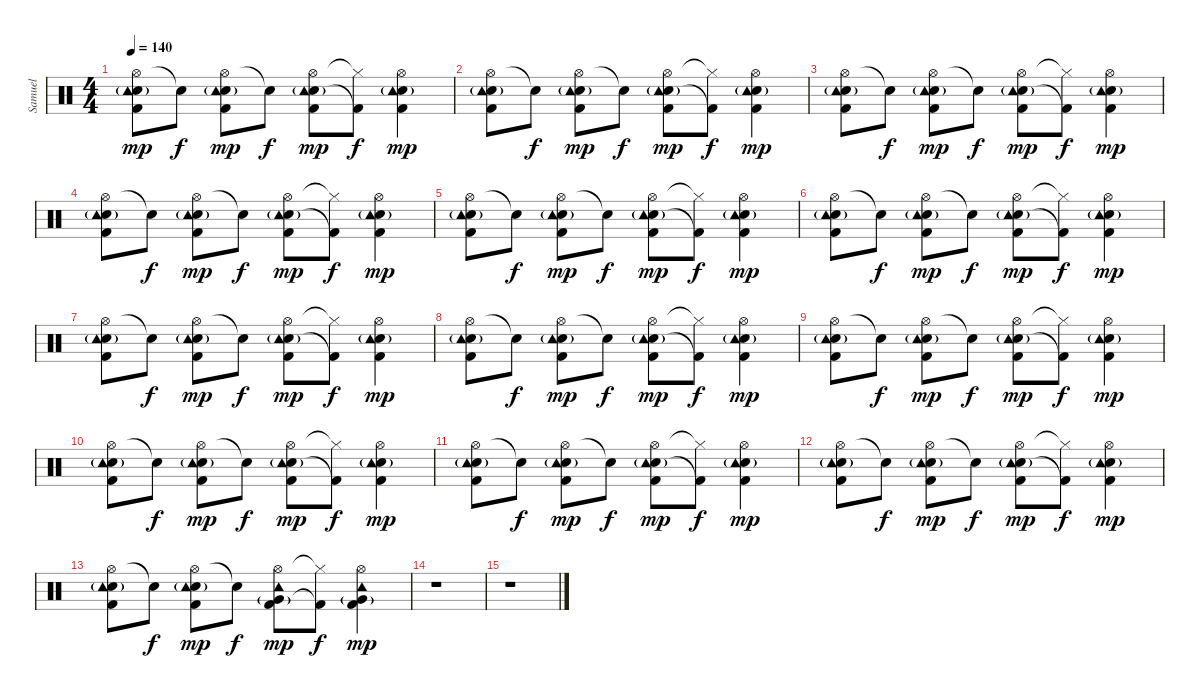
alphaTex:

\track ("Samuel" "Samuel") {instrument percussion}
\staff {score}
\articulation defaults
\ts (4 4)
\tempo 140
\clef neutral
\ks c
("Hi-Hat (open)" "Snare (hit) 2"{g} "Kick (hit) 2" "Tambourine (hit)").8{dy mp} "Snare (hit)"{t}.8{dy f} ("Hi-Hat (open)" "Snare (hit) 2"{g} "Kick (hit) 2" "Tambourine (hit)").8{dy mp} "Snare (hit)"{t}.8{dy f} ("Hi-Hat (open)" "Snare (hit) 2"{g} "Kick (hit) 2" "Tambourine (hit)").8{dy mp} ("Hi-Hat (closed)"{t} "Kick (hit) 2"{t}).8{dy f} ("Hi-Hat (open)" "Snare (hit) 2"{g} "Kick (hit) 2" "Tambourine (hit)").4{dy mp} |
("Hi-Hat (open)" "Snare (hit) 2"{g} "Kick (hit) 2" "Tambourine (hit)").8 "Snare (hit)"{t}.8{dy f} ("Hi-Hat (open)" "Snare (hit) 2"{g} "Kick (hit) 2" "Tambourine (hit)").8{dy mp} "Snare (hit)"{t}.8{dy f} ("Hi-Hat (open)" "Snare (hit) 2"{g} "Kick (hit) 2" "Tambourine (hit)").8{dy mp} ("Hi-Hat (closed)"{t} "Kick (hit) 2"{t}).8{dy f} ("Hi-Hat (open)" "Snare (hit) 2"{g} "Kick (hit) 2" "Tambourine (hit)").4{dy mp} |
("Hi-Hat (open)" "Snare (hit) 2"{g} "Kick (hit) 2" "Tambourine (hit)").8 "Snare (hit)"{t}.8{dy f} ("Hi-Hat (open)" "Snare (hit) 2"{g} "Kick (hit) 2" "Tambourine (hit)").8{dy mp} "Snare (hit)"{t}.8{dy f} ("Hi-Hat (open)" "Snare (hit) 2"{g} "Kick (hit) 2" "Tambourine (hit)").8{dy mp} ("Hi-Hat (closed)"{t} "Kick (hit) 2"{t}).8{dy f} ("Hi-Hat (open)" "Snare (hit) 2"{g} "Kick (hit) 2" "Tambourine (hit)").4{dy mp} |
("Hi-Hat (open)" "Snare (hit) 2"{g} "Kick (hit) 2" "Tambourine (hit)").8 "Snare (hit)"{t}.8{dy f} ("Hi-Hat (open)" "Snare (hit) 2"{g} "Kick (hit) 2" "Tambourine (hit)").8{dy mp} "Snare (hit)"{t}.8{dy f} ("Hi-Hat (open)" "Snare (hit) 2"{g} "Kick (hit) 2" "Tambourine (hit)").8{dy mp} ("Hi-Hat (closed)"{t} "Kick (hit) 2"{t}).8{dy f} ("Hi-Hat (open)" "Snare (hit) 2"{g} "Kick (hit) 2" "Tambourine (hit)").4{dy mp} |
("Hi-Hat (open)" "Snare (hit) 2"{g} "Kick (hit) 2" "Tambourine (hit)").8 "Snare (hit)"{t}.8{dy f} ("Hi-Hat (open)" "Snare (hit) 2"{g} "Kick (hit) 2" "Tambourine (hit)").8{dy mp} "Snare (hit)"{t}.8{dy f} ("Hi-Hat (open)" "Snare (hit) 2"{g} "Kick (hit) 2" "Tambourine (hit)").8{dy mp} ("Hi-Hat (closed)"{t} "Kick (hit) 2"{t}).8{dy f} ("Hi-Hat (open)" "Snare (hit) 2"{g} "Kick (hit) 2" "Tambourine (hit)").4{dy mp} |
("Hi-Hat (open)" "Snare (hit) 2"{g} "Kick (hit) 2" "Tambourine (hit)").8 "Snare (hit)"{t}.8{dy f} ("Hi-Hat (open)" "Snare (hit) 2"{g} "Kick (hit) 2" "Tambourine (hit)").8{dy mp} "Snare (hit)"{t}.8{dy f} ("Hi-Hat (open)" "Snare (hit) 2"{g} "Kick (hit) 2" "Tambourine (hit)").8{dy mp} ("Hi-Hat (closed)"{t} "Kick (hit) 2"{t}).8{dy f} ("Hi-Hat (open)" "Snare (hit) 2"{g} "Kick (hit) 2" "Tambourine (hit)").4{dy mp} |
("Hi-Hat (open)" "Snare (hit) 2"{g} "Kick (hit) 2" "Tambourine (hit)").8 "Snare (hit)"{t}.8{dy f} ("Hi-Hat (open)" "Snare (hit) 2"{g} "Kick (hit) 2" "Tambourine (hit)").8{dy mp} "Snare (hit)"{t}.8{dy f} ("Hi-Hat (open)" "Snare (hit) 2"{g} "Kick (hit) 2" "Tambourine (hit)").8{dy mp} ("Hi-Hat (closed)"{t} "Kick (hit) 2"{t}).8{dy f} ("Hi-Hat (open)" "Snare (hit) 2"{g} "Kick (hit) 2" "Tambourine (hit)").4{dy mp} |
("Hi-Hat (open)" "Snare (hit) 2"{g} "Kick (hit) 2" "Tambourine (hit)").8 "Snare (hit)"{t}.8{dy f} ("Hi-Hat (open)" "Snare (hit) 2"{g} "Kick (hit) 2" "Tambourine (hit)").8{dy mp} "Snare (hit)"{t}.8{dy f} ("Hi-Hat (open)" "Snare (hit) 2"{g} "Kick (hit) 2" "Tambourine (hit)").8{dy mp} ("Hi-Hat (closed)"{t} "Kick (hit) 2"{t}).8{dy f} ("Hi-Hat (open)" "Snare (hit) 2"{g} "Kick (hit) 2" "Tambourine (hit)").4{dy mp} |
("Hi-Hat (open)" "Snare (hit) 2"{g} "Kick (hit) 2" "Tambourine (hit)").8 "Snare (hit)"{t}.8{dy f} ("Hi-Hat (open)" "Snare (hit) 2"{g} "Kick (hit) 2" "Tambourine (hit)").8{dy mp} "Snare (hit)"{t}.8{dy f} ("Hi-Hat (open)" "Snare (hit) 2"{g} "Kick (hit) 2" "Tambourine (hit)").8{dy mp} ("Hi-Hat (closed)"{t} "Kick (hit) 2"{t}).8{dy f} ("Hi-Hat (open)" "Snare (hit) 2"{g} "Kick (hit) 2" "Tambourine (hit)").4{dy mp} |
("Hi-Hat (open)" "Snare (hit) 2"{g} "Kick (hit) 2" "Tambourine (hit)").8 "Snare (hit)"{t}.8{dy f} ("Hi-Hat (open)" "Snare (hit) 2"{g} "Kick (hit) 2" "Tambourine (hit)").8{dy mp} "Snare (hit)"{t}.8{dy f} ("Hi-Hat (open)" "Snare (hit) 2"{g} "Kick (hit) 2" "Tambourine (hit)").8{dy mp} ("Hi-Hat (closed)"{t} "Kick (hit) 2"{t}).8{dy f} ("Hi-Hat (open)" "Snare (hit) 2"{g} "Kick (hit) 2" "Tambourine (hit)").4{dy mp} |
("Hi-Hat (open)" "Snare (hit) 2"{g} "Kick (hit) 2" "Tambourine (hit)").8 "Snare (hit)"{t}.8{dy f} ("Hi-Hat (open)" "Snare (hit) 2"{g} "Kick (hit) 2" "Tambourine (hit)").8{dy mp} "Snare (hit)"{t}.8{dy f} ("Hi-Hat (open)" "Snare (hit) 2"{g} "Kick (hit) 2" "Tambourine (hit)").8{dy mp} ("Hi-Hat (closed)"{t} "Kick (hit) 2"{t}).8{dy f} ("Hi-Hat (open)" "Snare (hit) 2"{g} "Kick (hit) 2" "Tambourine (hit)").4{dy mp} |
("Hi-Hat (open)" "Snare (hit) 2"{g} "Kick (hit) 2" "Tambourine (hit)").8 "Snare (hit)"{t}.8{dy f} ("Hi-Hat (open)" "Snare (hit) 2"{g} "Kick (hit) 2" "Tambourine (hit)").8{dy mp} "Snare (hit)"{t}.8{dy f} ("Hi-Hat (open)" "Snare (hit) 2"{g} "Kick (hit) 2" "Tambourine (hit)").8{dy mp} ("Hi-Hat (closed)"{t} "Kick (hit) 2"{t}).8{dy f} ("Hi-Hat (open)" "Snare (hit) 2"{g} "Kick (hit) 2" "Tambourine (hit)").4{dy mp} |
("Hi-Hat (open)" "Snare (hit) 2"{g} "Kick (hit) 2" "Tambourine (hit)").8{volume 12} "Snare (hit)"{t}.8{dy f} ("Hi-Hat (open)" "Snare (hit) 2"{g} "Kick (hit) 2" "Tambourine (hit)").8{dy mp} "Snare (hit)"{t}.8{dy f} ("Hi-Hat (open)" "Very Low Tom (hit)"{g} "Kick (hit) 2" "Tambourine (hit)").8{dy mp} ("Hi-Hat (closed)"{t} "Kick (hit) 2"{t}).8{dy f} ("Hi-Hat (open)" "Very Low Tom (hit)"{g} "Kick (hit) 2" "Tambourine (hit)").4{dy mp} |
r.1 |
r.1
